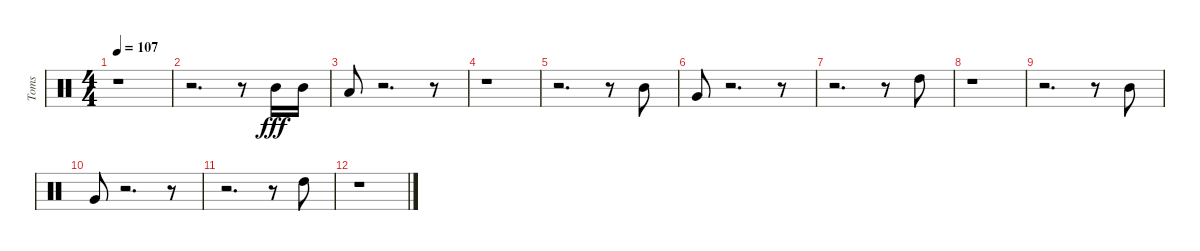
\track ("Toms" "Toms") {instrument percussion}
\staff {score}
\articulation defaults
\ts (4 4)
\tempo 107
\clef neutral
\ks c
r.1{dy fff} |
r.2{d} r.8 "Mid Tom (hit)".16 "Mid Tom (hit)".16 |
"Low Floor Tom (hit)".8 r.2{d} r.8 |
r.1 |
r.2{d} r.8 "Mid Tom (hit)".8 |
"Very Low Tom (hit)".8 r.2{d} r.8 |
r.2{d} r.8 "High Tom (hit)".8 |
r.1 |
r.2{d} r.8 "Mid Tom (hit)".8 |
"Very Low Tom (hit)".8 r.2{d} r.8 |
r.2{d} r.8 "High Tom (hit)".8 |
r.1
